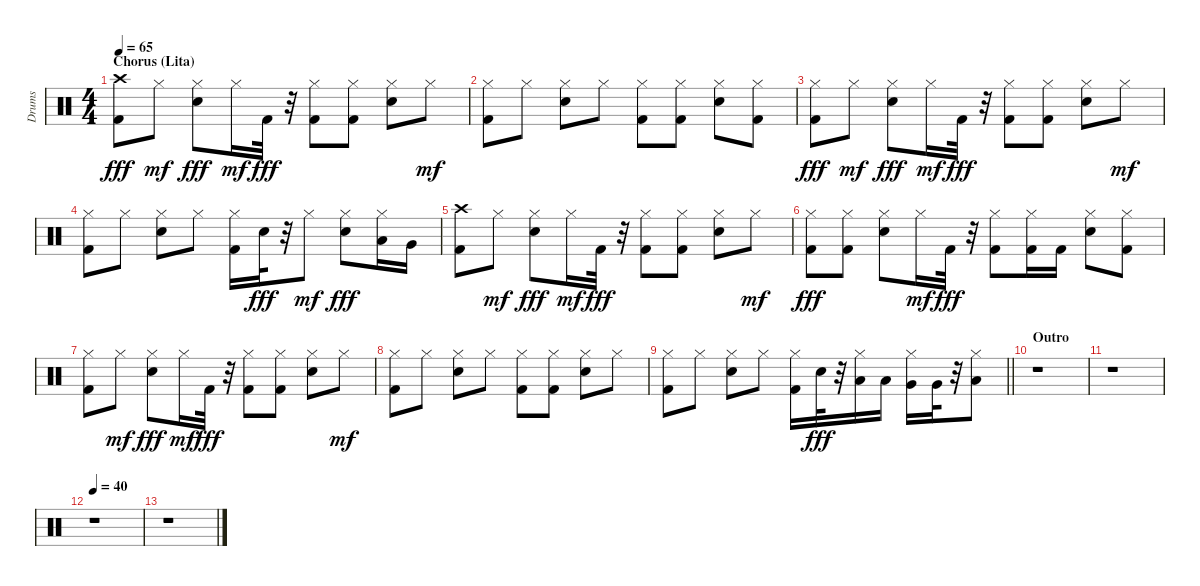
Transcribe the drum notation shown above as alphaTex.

\track ("Drums" "Drums") {instrument percussion}
\staff {score}
\articulation defaults
\ts (4 4)
\section ("" "Chorus (Lita)")
\tempo 65
\clef neutral
\ks c
("Crash high (hit)" "Kick (hit) 2").8{dy fff} "Hi-Hat (closed)".8{dy mf} ("Hi-Hat (closed)" "Snare (hit) 2").8{dy fff} "Hi-Hat (closed)".16{dy mf} "Kick (hit) 2".32{dy fff} r.32 ("Hi-Hat (closed)" "Kick (hit) 2").8 ("Hi-Hat (closed)" "Kick (hit) 2").8 ("Hi-Hat (closed)" "Snare (hit) 2").8 "Hi-Hat (closed)".8{dy mf} |
("Kick (hit) 2" "Hi-Hat (closed)").8 "Hi-Hat (closed)".8 ("Snare (hit) 2" "Hi-Hat (closed)").8 "Hi-Hat (closed)".8 ("Kick (hit) 2" "Hi-Hat (closed)").8 ("Kick (hit) 2" "Hi-Hat (closed)").8 ("Snare (hit) 2" "Hi-Hat (closed)").8 ("Kick (hit) 2" "Hi-Hat (closed)").8 |
("Hi-Hat (closed)" "Kick (hit) 2").8{dy fff} "Hi-Hat (closed)".8{dy mf} ("Hi-Hat (closed)" "Snare (hit) 2").8{dy fff} "Hi-Hat (closed)".16{dy mf} "Kick (hit) 2".32{dy fff} r.32 ("Hi-Hat (closed)" "Kick (hit) 2").8 ("Hi-Hat (closed)" "Kick (hit) 2").8 ("Hi-Hat (closed)" "Snare (hit) 2").8 "Hi-Hat (closed)".8{dy mf} |
("Kick (hit) 2" "Hi-Hat (closed)").8 "Hi-Hat (closed)".8 ("Snare (hit) 2" "Hi-Hat (closed)").8 "Hi-Hat (closed)".8 ("Kick (hit) 2" "Hi-Hat (closed)").16 "Snare (hit) 2".32{dy fff} r.32 "Hi-Hat (closed)".8{dy mf} ("Hi-Hat (closed)" "Snare (hit) 2").8{dy fff} ("Hi-Hat (closed)" "Low Tom (hit)").16 "Very Low Tom (hit)".16 |
("Crash high (hit)" "Kick (hit) 2").8 "Hi-Hat (closed)".8{dy mf} ("Hi-Hat (closed)" "Snare (hit) 2").8{dy fff} "Hi-Hat (closed)".16{dy mf} "Kick (hit) 2".32{dy fff} r.32 ("Hi-Hat (closed)" "Kick (hit) 2").8 ("Hi-Hat (closed)" "Kick (hit) 2").8 ("Hi-Hat (closed)" "Snare (hit) 2").8 "Hi-Hat (closed)".8{dy mf} |
("Hi-Hat (closed)" "Kick (hit) 2").8{dy fff} ("Hi-Hat (closed)" "Kick (hit) 2").8 ("Hi-Hat (closed)" "Snare (hit) 2").8 "Hi-Hat (closed)".16{dy mf} "Kick (hit) 2".32{dy fff} r.32 ("Hi-Hat (closed)" "Kick (hit) 2").8 ("Hi-Hat (closed)" "Kick (hit) 2").16 "Kick (hit) 2".16 ("Hi-Hat (closed)" "Snare (hit) 2").8 ("Hi-Hat (closed)" "Kick (hit) 2").8 |
("Hi-Hat (closed)" "Kick (hit) 2").8 "Hi-Hat (closed)".8{dy mf} ("Hi-Hat (closed)" "Snare (hit) 2").8{dy fff} "Hi-Hat (closed)".16{dy mf} "Kick (hit) 2".32{dy fff} r.32 ("Hi-Hat (closed)" "Kick (hit) 2").8 ("Hi-Hat (closed)" "Kick (hit) 2").8 ("Hi-Hat (closed)" "Snare (hit) 2").8 "Hi-Hat (closed)".8{dy mf} |
("Kick (hit) 2" "Hi-Hat (closed)").8 "Hi-Hat (closed)".8 ("Snare (hit) 2" "Hi-Hat (closed)").8 "Hi-Hat (closed)".8 ("Kick (hit) 2" "Hi-Hat (closed)").8 ("Kick (hit) 2" "Hi-Hat (closed)").8 ("Snare (hit) 2" "Hi-Hat (closed)").8 "Hi-Hat (closed)".8 |
\barLineRight lightlight
("Kick (hit) 2" "Hi-Hat (closed)").8 "Hi-Hat (closed)".8 ("Snare (hit) 2" "Hi-Hat (closed)").8 "Hi-Hat (closed)".8 ("Kick (hit) 2" "Hi-Hat (closed)").16 "Snare (hit) 2".32{dy fff} r.32 ("Hi-Hat (closed)" "Low Tom (hit)").16 "Low Tom (hit)".16 ("Hi-Hat (closed)" "Very Low Tom (hit)").16 "Very Low Tom (hit)".32 r.32 ("Hi-Hat (closed)" "Low Floor Tom (hit)").8 |
\section ("" "Outro")
r.1 |
r.1 |
\tempo 40
r.1 |
r.1
